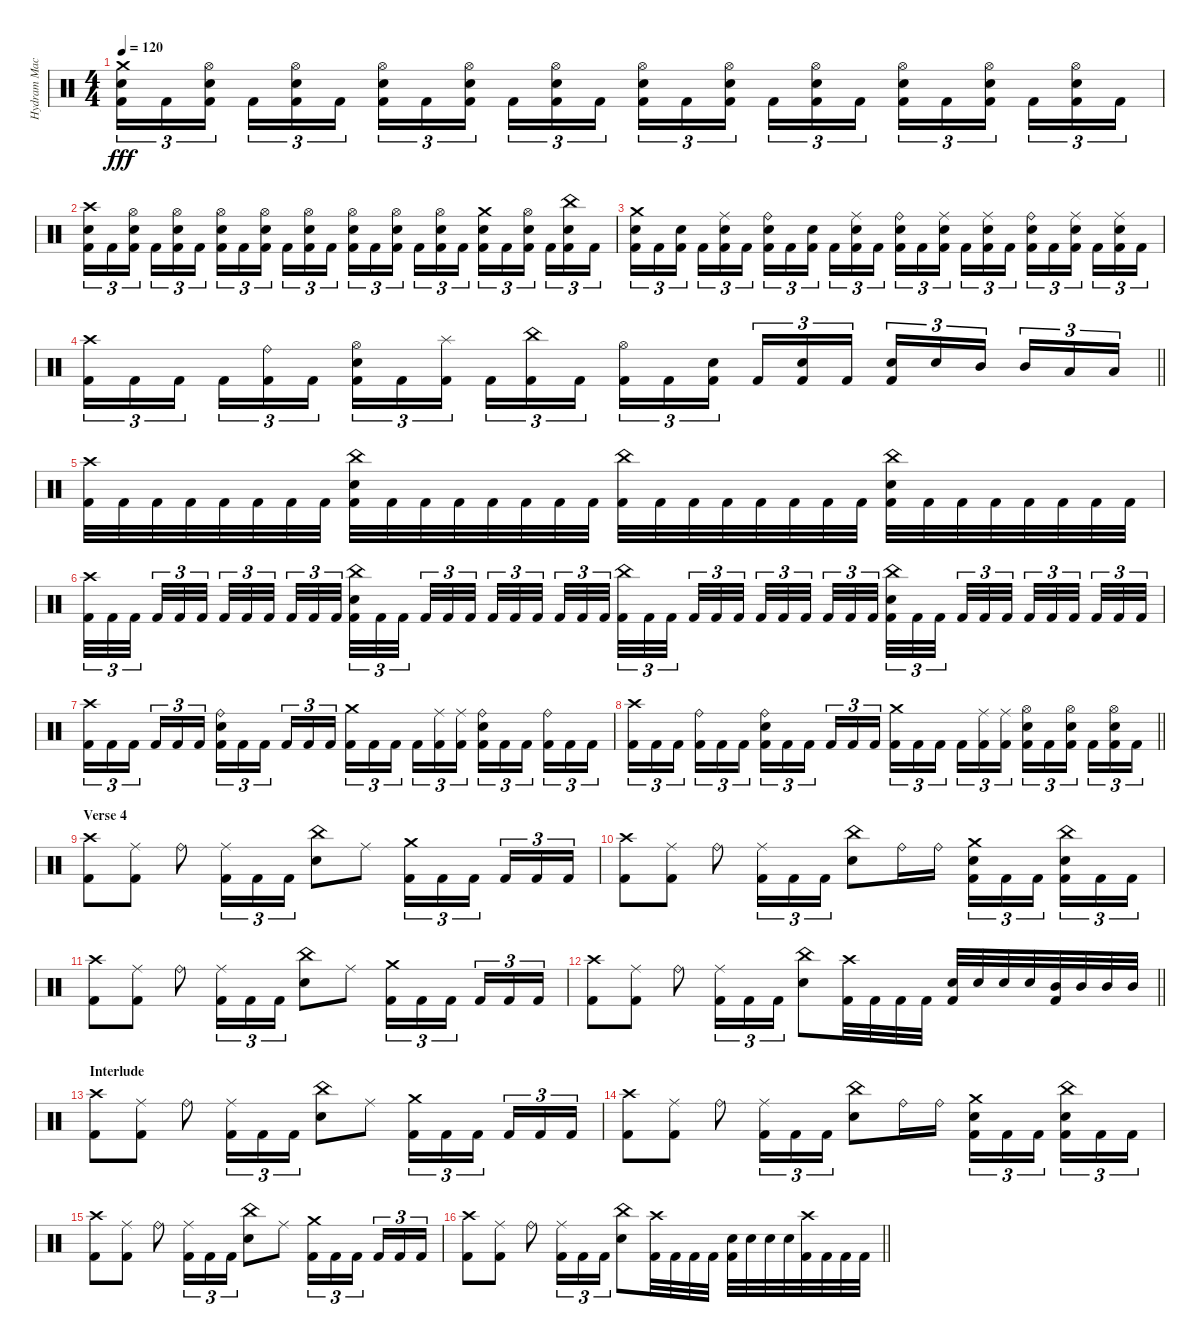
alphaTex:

\track ("Hydram Machine" "Hydram Mac") {instrument percussion}
\staff {score}
\articulation defaults
\ts (4 4)
\tempo 120
\clef neutral
\ks c
("Crash medium (hit)" "Electric Snare (hit)" "Kick (hit) 2").16{tu (3 2) dy fff} "Kick (hit) 2".16{tu (3 2)} ("Hi-Hat (open)" "Electric Snare (hit)" "Kick (hit) 2").16{tu (3 2) beam splitsecondary} "Kick (hit) 2".16{tu (3 2)} ("Hi-Hat (open)" "Electric Snare (hit)" "Kick (hit) 2").16{tu (3 2)} "Kick (hit) 2".16{tu (3 2)} ("Hi-Hat (open)" "Electric Snare (hit)" "Kick (hit) 2").16{tu (3 2)} "Kick (hit) 2".16{tu (3 2)} ("Hi-Hat (open)" "Electric Snare (hit)" "Kick (hit) 2").16{tu (3 2) beam splitsecondary} "Kick (hit) 2".16{tu (3 2)} ("Hi-Hat (open)" "Electric Snare (hit)" "Kick (hit) 2").16{tu (3 2)} "Kick (hit) 2".16{tu (3 2)} ("Hi-Hat (open)" "Electric Snare (hit)" "Kick (hit) 2").16{tu (3 2)} "Kick (hit) 2".16{tu (3 2)} ("Hi-Hat (open)" "Electric Snare (hit)" "Kick (hit) 2").16{tu (3 2) beam splitsecondary} "Kick (hit) 2".16{tu (3 2)} ("Hi-Hat (open)" "Electric Snare (hit)" "Kick (hit) 2").16{tu (3 2)} "Kick (hit) 2".16{tu (3 2)} ("Hi-Hat (open)" "Electric Snare (hit)" "Kick (hit) 2").16{tu (3 2)} "Kick (hit) 2".16{tu (3 2)} ("Hi-Hat (open)" "Electric Snare (hit)" "Kick (hit) 2").16{tu (3 2) beam splitsecondary} "Kick (hit) 2".16{tu (3 2)} ("Hi-Hat (open)" "Electric Snare (hit)" "Kick (hit) 2").16{tu (3 2)} "Kick (hit) 2".16{tu (3 2)} |
("Crash high (hit)" "Electric Snare (hit)" "Kick (hit) 2").16{tu (3 2)} "Kick (hit) 2".16{tu (3 2)} ("Hi-Hat (open)" "Electric Snare (hit)" "Kick (hit) 2").16{tu (3 2) beam splitsecondary} "Kick (hit) 2".16{tu (3 2)} ("Hi-Hat (open)" "Electric Snare (hit)" "Kick (hit) 2").16{tu (3 2)} "Kick (hit) 2".16{tu (3 2)} ("Hi-Hat (open)" "Electric Snare (hit)" "Kick (hit) 2").16{tu (3 2)} "Kick (hit) 2".16{tu (3 2)} ("Hi-Hat (open)" "Electric Snare (hit)" "Kick (hit) 2").16{tu (3 2) beam splitsecondary} "Kick (hit) 2".16{tu (3 2)} ("Hi-Hat (open)" "Electric Snare (hit)" "Kick (hit) 2").16{tu (3 2)} "Kick (hit) 2".16{tu (3 2)} ("Hi-Hat (open)" "Electric Snare (hit)" "Kick (hit) 2").16{tu (3 2)} "Kick (hit) 2".16{tu (3 2)} ("Hi-Hat (open)" "Electric Snare (hit)" "Kick (hit) 2").16{tu (3 2) beam splitsecondary} "Kick (hit) 2".16{tu (3 2)} ("Hi-Hat (open)" "Electric Snare (hit)" "Kick (hit) 2").16{tu (3 2)} "Kick (hit) 2".16{tu (3 2)} ("Crash medium (hit)" "Electric Snare (hit)" "Kick (hit) 2").16{tu (3 2)} "Kick (hit) 2".16{tu (3 2)} ("Hi-Hat (open)" "Electric Snare (hit)" "Kick (hit) 2").16{tu (3 2) beam splitsecondary} "Kick (hit) 2".16{tu (3 2)} ("China (hit)" "Electric Snare (hit)" "Kick (hit) 2").16{tu (3 2)} "Kick (hit) 2".16{tu (3 2)} |
("Crash medium (hit)" "Electric Snare (hit)" "Kick (hit) 2").16{tu (3 2)} "Kick (hit) 2".16{tu (3 2)} ("Electric Snare (hit)" "Kick (hit) 2").16{tu (3 2) beam splitsecondary} "Kick (hit) 2".16{tu (3 2)} ("Ride (middle)" "Electric Snare (hit)" "Kick (hit) 2").16{tu (3 2)} "Kick (hit) 2".16{tu (3 2)} ("Ride (bell)" "Electric Snare (hit)" "Kick (hit) 2").16{tu (3 2)} "Kick (hit) 2".16{tu (3 2)} ("Electric Snare (hit)" "Kick (hit) 2").16{tu (3 2) beam splitsecondary} "Kick (hit) 2".16{tu (3 2)} ("Ride (middle)" "Electric Snare (hit)" "Kick (hit) 2").16{tu (3 2)} "Kick (hit) 2".16{tu (3 2)} ("Ride (bell)" "Electric Snare (hit)" "Kick (hit) 2").16{tu (3 2)} "Kick (hit) 2".16{tu (3 2)} ("Ride (middle)" "Electric Snare (hit)" "Kick (hit) 2").16{tu (3 2) beam splitsecondary} "Kick (hit) 2".16{tu (3 2)} ("Ride (middle)" "Electric Snare (hit)" "Kick (hit) 2").16{tu (3 2)} "Kick (hit) 2".16{tu (3 2)} ("Ride (bell)" "Electric Snare (hit)" "Kick (hit) 2").16{tu (3 2)} "Kick (hit) 2".16{tu (3 2)} ("Ride (middle)" "Electric Snare (hit)" "Kick (hit) 2").16{tu (3 2) beam splitsecondary} "Kick (hit) 2".16{tu (3 2)} ("Ride (middle)" "Electric Snare (hit)" "Kick (hit) 2").16{tu (3 2)} "Kick (hit) 2".16{tu (3 2)} |
\barLineRight lightlight
("Crash high (hit)" "Kick (hit) 2").16{tu (3 2)} "Kick (hit) 2".16{tu (3 2)} "Kick (hit) 2".16{tu (3 2) beam splitsecondary} "Kick (hit) 2".16{tu (3 2)} ("Ride (bell)" "Kick (hit) 2").16{tu (3 2)} "Kick (hit) 2".16{tu (3 2)} ("Hi-Hat (open)" "Electric Snare (hit)" "Kick (hit) 2").16{tu (3 2)} "Kick (hit) 2".16{tu (3 2)} ("Splash (hit)" "Kick (hit) 2").16{tu (3 2) beam splitsecondary} "Kick (hit) 2".16{tu (3 2)} ("China (hit)" "Kick (hit) 2").16{tu (3 2)} "Kick (hit) 2".16{tu (3 2)} ("Hi-Hat (open)" "Kick (hit) 2").16{tu (3 2)} "Kick (hit) 2".16{tu (3 2)} ("Electric Snare (hit)" "Kick (hit) 2").16{tu (3 2) beam splitsecondary} "Kick (hit) 2".16{tu (3 2)} ("Electric Snare (hit)" "Kick (hit) 2").16{tu (3 2)} "Kick (hit) 2".16{tu (3 2)} ("Electric Snare (hit)" "Kick (hit) 2").16{tu (3 2)} "Electric Snare (hit)".16{tu (3 2)} "Mid Tom (hit)".16{tu (3 2) beam splitsecondary} "Mid Tom (hit)".16{tu (3 2)} "Low Tom (hit)".16{tu (3 2)} "Low Tom (hit)".16{tu (3 2)} |
("Crash high (hit)" "Kick (hit) 2").32 "Kick (hit) 2".32 "Kick (hit) 2".32 "Kick (hit) 2".32 "Kick (hit) 2".32 "Kick (hit) 2".32 "Kick (hit) 2".32 "Kick (hit) 2".32 ("China (hit)" "Electric Snare (hit)" "Kick (hit) 2").32 "Kick (hit) 2".32 "Kick (hit) 2".32 "Kick (hit) 2".32 "Kick (hit) 2".32 "Kick (hit) 2".32 "Kick (hit) 2".32 "Kick (hit) 2".32 ("China (hit)" "Kick (hit) 2").32 "Kick (hit) 2".32 "Kick (hit) 2".32 "Kick (hit) 2".32 "Kick (hit) 2".32 "Kick (hit) 2".32 "Kick (hit) 2".32 "Kick (hit) 2".32 ("China (hit)" "Electric Snare (hit)" "Kick (hit) 2").32 "Kick (hit) 2".32 "Kick (hit) 2".32 "Kick (hit) 2".32 "Kick (hit) 2".32 "Kick (hit) 2".32 "Kick (hit) 2".32 "Kick (hit) 2".32 |
("Crash high (hit)" "Kick (hit) 2").32{tu (3 2)} "Kick (hit) 2".32{tu (3 2)} "Kick (hit) 2".32{tu (3 2) beam splitsecondary} "Kick (hit) 2".32{tu (3 2)} "Kick (hit) 2".32{tu (3 2)} "Kick (hit) 2".32{tu (3 2) beam splitsecondary} "Kick (hit) 2".32{tu (3 2)} "Kick (hit) 2".32{tu (3 2)} "Kick (hit) 2".32{tu (3 2) beam splitsecondary} "Kick (hit) 2".32{tu (3 2)} "Kick (hit) 2".32{tu (3 2)} "Kick (hit) 2".32{tu (3 2)} ("China (hit)" "Electric Snare (hit)" "Kick (hit) 2").32{tu (3 2)} "Kick (hit) 2".32{tu (3 2)} "Kick (hit) 2".32{tu (3 2) beam splitsecondary} "Kick (hit) 2".32{tu (3 2)} "Kick (hit) 2".32{tu (3 2)} "Kick (hit) 2".32{tu (3 2) beam splitsecondary} "Kick (hit) 2".32{tu (3 2)} "Kick (hit) 2".32{tu (3 2)} "Kick (hit) 2".32{tu (3 2) beam splitsecondary} "Kick (hit) 2".32{tu (3 2)} "Kick (hit) 2".32{tu (3 2)} "Kick (hit) 2".32{tu (3 2)} ("China (hit)" "Kick (hit) 2").32{tu (3 2)} "Kick (hit) 2".32{tu (3 2)} "Kick (hit) 2".32{tu (3 2) beam splitsecondary} "Kick (hit) 2".32{tu (3 2)} "Kick (hit) 2".32{tu (3 2)} "Kick (hit) 2".32{tu (3 2) beam splitsecondary} "Kick (hit) 2".32{tu (3 2)} "Kick (hit) 2".32{tu (3 2)} "Kick (hit) 2".32{tu (3 2) beam splitsecondary} "Kick (hit) 2".32{tu (3 2)} "Kick (hit) 2".32{tu (3 2)} "Kick (hit) 2".32{tu (3 2)} ("China (hit)" "Electric Snare (hit)" "Kick (hit) 2").32{tu (3 2)} "Kick (hit) 2".32{tu (3 2)} "Kick (hit) 2".32{tu (3 2) beam splitsecondary} "Kick (hit) 2".32{tu (3 2)} "Kick (hit) 2".32{tu (3 2)} "Kick (hit) 2".32{tu (3 2) beam splitsecondary} "Kick (hit) 2".32{tu (3 2)} "Kick (hit) 2".32{tu (3 2)} "Kick (hit) 2".32{tu (3 2) beam splitsecondary} "Kick (hit) 2".32{tu (3 2)} "Kick (hit) 2".32{tu (3 2)} "Kick (hit) 2".32{tu (3 2)} |
("Crash high (hit)" "Kick (hit) 2").16{tu (3 2)} "Kick (hit) 2".16{tu (3 2)} "Kick (hit) 2".16{tu (3 2) beam splitsecondary} "Kick (hit) 2".16{tu (3 2)} "Kick (hit) 2".16{tu (3 2)} "Kick (hit) 2".16{tu (3 2)} ("Ride (bell)" "Electric Snare (hit)" "Kick (hit) 2").16{tu (3 2)} "Kick (hit) 2".16{tu (3 2)} "Kick (hit) 2".16{tu (3 2) beam splitsecondary} "Kick (hit) 2".16{tu (3 2)} "Kick (hit) 2".16{tu (3 2)} "Kick (hit) 2".16{tu (3 2)} ("Crash medium (hit)" "Kick (hit) 2").16{tu (3 2)} "Kick (hit) 2".16{tu (3 2)} "Kick (hit) 2".16{tu (3 2) beam splitsecondary} "Kick (hit) 2".16{tu (3 2)} ("Ride (middle)" "Kick (hit) 2").16{tu (3 2)} ("Ride (middle)" "Kick (hit) 2").16{tu (3 2)} ("Ride (bell)" "Electric Snare (hit)" "Kick (hit) 2").16{tu (3 2)} "Kick (hit) 2".16{tu (3 2)} "Kick (hit) 2".16{tu (3 2) beam splitsecondary} ("Ride (bell)" "Kick (hit) 2").16{tu (3 2)} "Kick (hit) 2".16{tu (3 2)} "Kick (hit) 2".16{tu (3 2)} |
\barLineRight lightlight
("Crash high (hit)" "Kick (hit) 2").16{tu (3 2)} "Kick (hit) 2".16{tu (3 2)} "Kick (hit) 2".16{tu (3 2) beam splitsecondary} ("Ride (bell)" "Kick (hit) 2").16{tu (3 2)} "Kick (hit) 2".16{tu (3 2)} "Kick (hit) 2".16{tu (3 2)} ("Ride (bell)" "Electric Snare (hit)" "Kick (hit) 2").16{tu (3 2)} "Kick (hit) 2".16{tu (3 2)} "Kick (hit) 2".16{tu (3 2) beam splitsecondary} "Kick (hit) 2".16{tu (3 2)} "Kick (hit) 2".16{tu (3 2)} "Kick (hit) 2".16{tu (3 2)} ("Crash medium (hit)" "Kick (hit) 2").16{tu (3 2)} "Kick (hit) 2".16{tu (3 2)} "Kick (hit) 2".16{tu (3 2) beam splitsecondary} "Kick (hit) 2".16{tu (3 2)} ("Ride (middle)" "Kick (hit) 2").16{tu (3 2)} ("Ride (middle)" "Kick (hit) 2").16{tu (3 2)} ("Hi-Hat (open)" "Electric Snare (hit)" "Kick (hit) 2").16{tu (3 2)} "Kick (hit) 2".16{tu (3 2)} ("Hi-Hat (open)" "Electric Snare (hit)" "Kick (hit) 2").16{tu (3 2) beam splitsecondary} "Kick (hit) 2".16{tu (3 2)} ("Hi-Hat (open)" "Electric Snare (hit)" "Kick (hit) 2").16{tu (3 2)} "Kick (hit) 2".16{tu (3 2)} |
\section ("" "Verse 4")
("Crash high (hit)" "Kick (hit) 2").8 ("Ride (middle)" "Kick (hit) 2").8 "Ride (bell)".8 ("Ride (middle)" "Kick (hit) 2").16{tu (3 2)} "Kick (hit) 2".16{tu (3 2)} "Kick (hit) 2".16{tu (3 2)} ("China (hit)" "Electric Snare (hit)").8 "Ride (middle)".8 ("Crash medium (hit)" "Kick (hit) 2").16{tu (3 2)} "Kick (hit) 2".16{tu (3 2)} "Kick (hit) 2".16{tu (3 2) beam splitsecondary} "Kick (hit) 2".16{tu (3 2)} "Kick (hit) 2".16{tu (3 2)} "Kick (hit) 2".16{tu (3 2)} |
("Crash high (hit)" "Kick (hit) 2").8 ("Ride (middle)" "Kick (hit) 2").8 "Ride (bell)".8 ("Ride (middle)" "Kick (hit) 2").16{tu (3 2)} "Kick (hit) 2".16{tu (3 2)} "Kick (hit) 2".16{tu (3 2)} ("China (hit)" "Electric Snare (hit)").8 "Ride (bell)".16 "Ride (bell)".16 ("Crash medium (hit)" "Electric Snare (hit)" "Kick (hit) 2").16{tu (3 2)} "Kick (hit) 2".16{tu (3 2)} "Kick (hit) 2".16{tu (3 2) beam splitsecondary} ("China (hit)" "Electric Snare (hit)" "Kick (hit) 2").16{tu (3 2)} "Kick (hit) 2".16{tu (3 2)} "Kick (hit) 2".16{tu (3 2)} |
("Crash high (hit)" "Kick (hit) 2").8 ("Ride (middle)" "Kick (hit) 2").8 "Ride (bell)".8 ("Ride (middle)" "Kick (hit) 2").16{tu (3 2)} "Kick (hit) 2".16{tu (3 2)} "Kick (hit) 2".16{tu (3 2)} ("China (hit)" "Electric Snare (hit)").8 "Ride (middle)".8 ("Crash medium (hit)" "Kick (hit) 2").16{tu (3 2)} "Kick (hit) 2".16{tu (3 2)} "Kick (hit) 2".16{tu (3 2) beam splitsecondary} "Kick (hit) 2".16{tu (3 2)} "Kick (hit) 2".16{tu (3 2)} "Kick (hit) 2".16{tu (3 2)} |
\barLineRight lightlight
("Crash high (hit)" "Kick (hit) 2").8 ("Ride (middle)" "Kick (hit) 2").8 "Ride (bell)".8 ("Ride (middle)" "Kick (hit) 2").16{tu (3 2)} "Kick (hit) 2".16{tu (3 2)} "Kick (hit) 2".16{tu (3 2)} ("China (hit)" "Electric Snare (hit)").8 ("Crash high (hit)" "Kick (hit) 2").32 "Kick (hit) 2".32 "Kick (hit) 2".32 "Kick (hit) 2".32 ("Electric Snare (hit)" "Kick (hit) 2").32 "Electric Snare (hit)".32 "Electric Snare (hit)".32 "Electric Snare (hit)".32 ("Mid Tom (hit)" "Kick (hit) 2").32 "Mid Tom (hit)".32 "Mid Tom (hit)".32 "Mid Tom (hit)".32 |
\section ("" "Interlude")
("Crash high (hit)" "Kick (hit) 2").8 ("Ride (middle)" "Kick (hit) 2").8 "Ride (bell)".8 ("Ride (middle)" "Kick (hit) 2").16{tu (3 2)} "Kick (hit) 2".16{tu (3 2)} "Kick (hit) 2".16{tu (3 2)} ("China (hit)" "Electric Snare (hit)").8 "Ride (middle)".8 ("Crash medium (hit)" "Kick (hit) 2").16{tu (3 2)} "Kick (hit) 2".16{tu (3 2)} "Kick (hit) 2".16{tu (3 2) beam splitsecondary} "Kick (hit) 2".16{tu (3 2)} "Kick (hit) 2".16{tu (3 2)} "Kick (hit) 2".16{tu (3 2)} |
("Crash high (hit)" "Kick (hit) 2").8 ("Ride (middle)" "Kick (hit) 2").8 "Ride (bell)".8 ("Ride (middle)" "Kick (hit) 2").16{tu (3 2)} "Kick (hit) 2".16{tu (3 2)} "Kick (hit) 2".16{tu (3 2)} ("China (hit)" "Electric Snare (hit)").8 "Ride (bell)".16 "Ride (bell)".16 ("Crash medium (hit)" "Electric Snare (hit)" "Kick (hit) 2").16{tu (3 2)} "Kick (hit) 2".16{tu (3 2)} "Kick (hit) 2".16{tu (3 2) beam splitsecondary} ("China (hit)" "Electric Snare (hit)" "Kick (hit) 2").16{tu (3 2)} "Kick (hit) 2".16{tu (3 2)} "Kick (hit) 2".16{tu (3 2)} |
("Crash high (hit)" "Kick (hit) 2").8 ("Ride (middle)" "Kick (hit) 2").8 "Ride (bell)".8 ("Ride (middle)" "Kick (hit) 2").16{tu (3 2)} "Kick (hit) 2".16{tu (3 2)} "Kick (hit) 2".16{tu (3 2)} ("China (hit)" "Electric Snare (hit)").8 "Ride (middle)".8 ("Crash medium (hit)" "Kick (hit) 2").16{tu (3 2)} "Kick (hit) 2".16{tu (3 2)} "Kick (hit) 2".16{tu (3 2) beam splitsecondary} "Kick (hit) 2".16{tu (3 2)} "Kick (hit) 2".16{tu (3 2)} "Kick (hit) 2".16{tu (3 2)} |
\barLineRight lightlight
("Crash high (hit)" "Kick (hit) 2").8 ("Ride (middle)" "Kick (hit) 2").8 "Ride (bell)".8 ("Ride (middle)" "Kick (hit) 2").16{tu (3 2)} "Kick (hit) 2".16{tu (3 2)} "Kick (hit) 2".16{tu (3 2)} ("China (hit)" "Electric Snare (hit)").8 ("Crash high (hit)" "Kick (hit) 2").32 "Kick (hit) 2".32 "Kick (hit) 2".32 "Kick (hit) 2".32 ("Electric Snare (hit)" "Kick (hit) 2").32 "Electric Snare (hit)".32 "Electric Snare (hit)".32 "Electric Snare (hit)".32 ("Crash high (hit)" "Kick (hit) 2").32 "Kick (hit) 2".32 "Kick (hit) 2".32 "Kick (hit) 2".32
